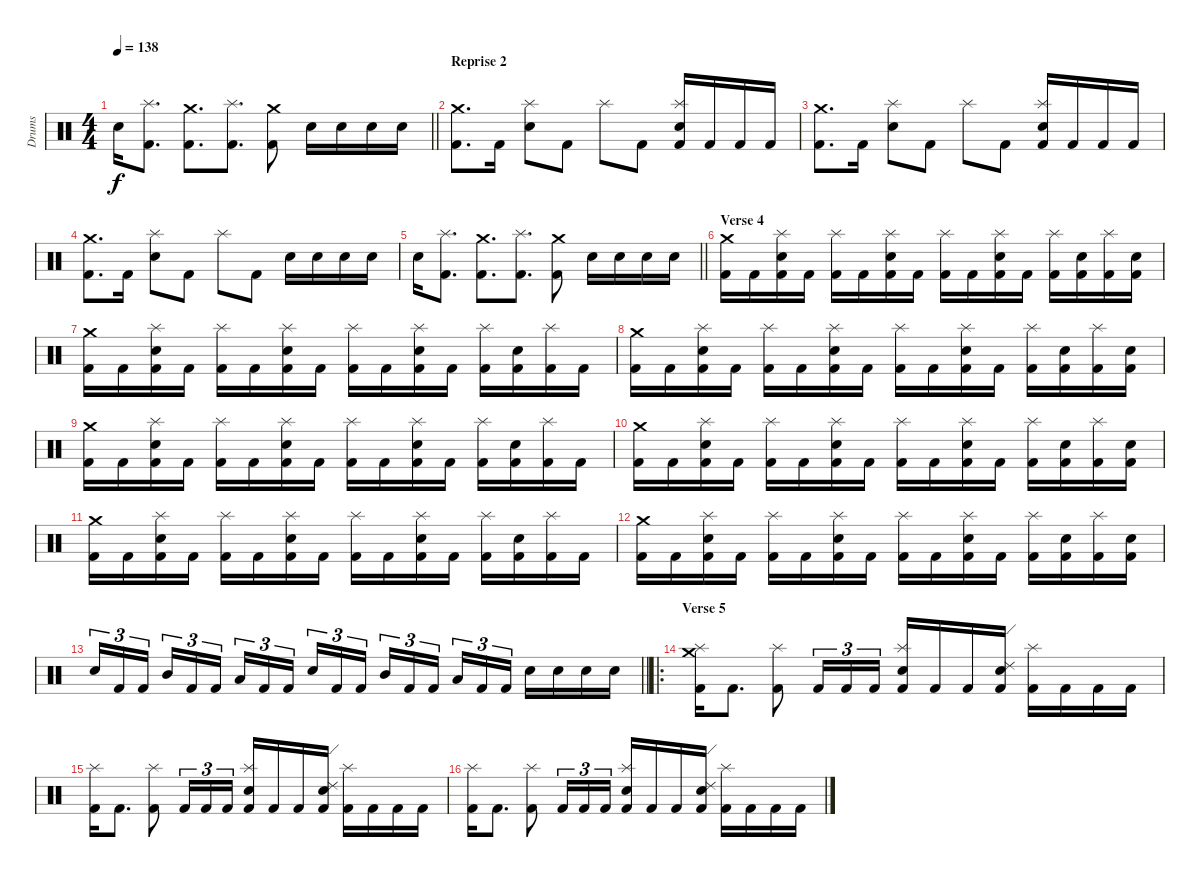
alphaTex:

\track ("Drums" "Drums") {instrument percussion}
\staff {score}
\articulation defaults
\ts (4 4)
\tempo 138
\clef neutral
\barLineRight lightlight
\ks c "Snare (hit) 2".16{dy f}
("Splash (hit)" "Kick (hit) 2").8{d} ("Crash medium (hit)" "Kick (hit) 2").8{d} ("Splash (hit)" "Kick (hit) 2").8{d} ("Crash medium (hit)" "Kick (hit) 2").8 "Snare (hit) 2".16 "Snare (hit) 2".16 "Snare (hit) 2".16 "Snare (hit) 2".16 |
\section ("" "Reprise 2")
("Crash medium (hit)" "Kick (hit) 2").8{d} "Kick (hit) 2".16 ("Splash (hit)" "Snare (hit) 2").8 "Kick (hit) 2".8 "Splash (hit)".8 "Kick (hit) 2".8 ("Splash (hit)" "Snare (hit) 2" "Kick (hit) 2").16 "Kick (hit) 2".16 "Kick (hit) 2".16 "Kick (hit) 2".16 |
("Crash medium (hit)" "Kick (hit) 2").8{d} "Kick (hit) 2".16 ("Splash (hit)" "Snare (hit) 2").8 "Kick (hit) 2".8 "Splash (hit)".8 "Kick (hit) 2".8 ("Splash (hit)" "Snare (hit) 2" "Kick (hit) 2").16 "Kick (hit) 2".16 "Kick (hit) 2".16 "Kick (hit) 2".16 |
("Crash medium (hit)" "Kick (hit) 2").8{d} "Kick (hit) 2".16 ("Splash (hit)" "Snare (hit) 2").8 "Kick (hit) 2".8 "Splash (hit)".8 "Kick (hit) 2".8 "Snare (hit) 2".16 "Snare (hit) 2".16 "Snare (hit) 2".16 "Snare (hit) 2".16 |
\barLineRight lightlight "Snare (hit) 2".16
("Splash (hit)" "Kick (hit) 2").8{d} ("Crash medium (hit)" "Kick (hit) 2").8{d} ("Splash (hit)" "Kick (hit) 2").8{d} ("Crash medium (hit)" "Kick (hit) 2").8 "Snare (hit) 2".16 "Snare (hit) 2".16 "Snare (hit) 2".16 "Snare (hit) 2".16 |
\section ("" "Verse 4")
("Crash medium (hit)" "Kick (hit) 2").16 "Kick (hit) 2".16 ("Splash (hit)" "Snare (hit) 2" "Kick (hit) 2").16 "Kick (hit) 2".16 ("Splash (hit)" "Kick (hit) 2").16 "Kick (hit) 2".16 ("Splash (hit)" "Snare (hit) 2" "Kick (hit) 2").16 "Kick (hit) 2".16 ("Splash (hit)" "Kick (hit) 2").16 "Kick (hit) 2".16 ("Splash (hit)" "Snare (hit) 2" "Kick (hit) 2").16 "Kick (hit) 2".16 ("Splash (hit)" "Kick (hit) 2").16 ("Snare (hit) 2" "Kick (hit) 2").16 ("Splash (hit)" "Kick (hit) 2").16 ("Snare (hit) 2" "Kick (hit) 2").16 |
("Crash medium (hit)" "Kick (hit) 2").16 "Kick (hit) 2".16 ("Splash (hit)" "Snare (hit) 2" "Kick (hit) 2").16 "Kick (hit) 2".16 ("Splash (hit)" "Kick (hit) 2").16 "Kick (hit) 2".16 ("Splash (hit)" "Snare (hit) 2" "Kick (hit) 2").16 "Kick (hit) 2".16 ("Splash (hit)" "Kick (hit) 2").16 "Kick (hit) 2".16 ("Splash (hit)" "Snare (hit) 2" "Kick (hit) 2").16 "Kick (hit) 2".16 ("Splash (hit)" "Kick (hit) 2").16 ("Snare (hit) 2" "Kick (hit) 2").16 ("Splash (hit)" "Kick (hit) 2").16 "Kick (hit) 2".16 |
("Crash medium (hit)" "Kick (hit) 2").16 "Kick (hit) 2".16 ("Splash (hit)" "Snare (hit) 2" "Kick (hit) 2").16 "Kick (hit) 2".16 ("Splash (hit)" "Kick (hit) 2").16 "Kick (hit) 2".16 ("Splash (hit)" "Snare (hit) 2" "Kick (hit) 2").16 "Kick (hit) 2".16 ("Splash (hit)" "Kick (hit) 2").16 "Kick (hit) 2".16 ("Splash (hit)" "Snare (hit) 2" "Kick (hit) 2").16 "Kick (hit) 2".16 ("Splash (hit)" "Kick (hit) 2").16 ("Snare (hit) 2" "Kick (hit) 2").16 ("Splash (hit)" "Kick (hit) 2").16 ("Snare (hit) 2" "Kick (hit) 2").16 |
("Crash medium (hit)" "Kick (hit) 2").16 "Kick (hit) 2".16 ("Splash (hit)" "Snare (hit) 2" "Kick (hit) 2").16 "Kick (hit) 2".16 ("Splash (hit)" "Kick (hit) 2").16 "Kick (hit) 2".16 ("Splash (hit)" "Snare (hit) 2" "Kick (hit) 2").16 "Kick (hit) 2".16 ("Splash (hit)" "Kick (hit) 2").16 "Kick (hit) 2".16 ("Splash (hit)" "Snare (hit) 2" "Kick (hit) 2").16 "Kick (hit) 2".16 ("Splash (hit)" "Kick (hit) 2").16 ("Snare (hit) 2" "Kick (hit) 2").16 ("Splash (hit)" "Kick (hit) 2").16 "Kick (hit) 2".16 |
("Crash medium (hit)" "Kick (hit) 2").16 "Kick (hit) 2".16 ("Splash (hit)" "Snare (hit) 2" "Kick (hit) 2").16 "Kick (hit) 2".16 ("Splash (hit)" "Kick (hit) 2").16 "Kick (hit) 2".16 ("Splash (hit)" "Snare (hit) 2" "Kick (hit) 2").16 "Kick (hit) 2".16 ("Splash (hit)" "Kick (hit) 2").16 "Kick (hit) 2".16 ("Splash (hit)" "Snare (hit) 2" "Kick (hit) 2").16 "Kick (hit) 2".16 ("Splash (hit)" "Kick (hit) 2").16 ("Snare (hit) 2" "Kick (hit) 2").16 ("Splash (hit)" "Kick (hit) 2").16 ("Snare (hit) 2" "Kick (hit) 2").16 |
("Crash medium (hit)" "Kick (hit) 2").16 "Kick (hit) 2".16 ("Splash (hit)" "Snare (hit) 2" "Kick (hit) 2").16 "Kick (hit) 2".16 ("Splash (hit)" "Kick (hit) 2").16 "Kick (hit) 2".16 ("Splash (hit)" "Snare (hit) 2" "Kick (hit) 2").16 "Kick (hit) 2".16 ("Splash (hit)" "Kick (hit) 2").16 "Kick (hit) 2".16 ("Splash (hit)" "Snare (hit) 2" "Kick (hit) 2").16 "Kick (hit) 2".16 ("Splash (hit)" "Kick (hit) 2").16 ("Snare (hit) 2" "Kick (hit) 2").16 ("Splash (hit)" "Kick (hit) 2").16 "Kick (hit) 2".16 |
("Crash medium (hit)" "Kick (hit) 2").16 "Kick (hit) 2".16 ("Splash (hit)" "Snare (hit) 2" "Kick (hit) 2").16 "Kick (hit) 2".16 ("Splash (hit)" "Kick (hit) 2").16 "Kick (hit) 2".16 ("Splash (hit)" "Snare (hit) 2" "Kick (hit) 2").16 "Kick (hit) 2".16 ("Splash (hit)" "Kick (hit) 2").16 "Kick (hit) 2".16 ("Splash (hit)" "Snare (hit) 2" "Kick (hit) 2").16 "Kick (hit) 2".16 ("Splash (hit)" "Kick (hit) 2").16 ("Snare (hit) 2" "Kick (hit) 2").16 ("Splash (hit)" "Kick (hit) 2").16 ("Snare (hit) 2" "Kick (hit) 2").16 |
\barLineRight lightlight "Snare (hit) 2".16{tu (3 2)} "Kick (hit) 2".16{tu (3 2)} "Kick (hit) 2".16{tu (3 2) beam splitsecondary} "Mid Tom (hit)".16{tu (3 2)} "Kick (hit) 2".16{tu (3 2)} "Kick (hit) 2".16{tu (3 2)} "Low Tom (hit)".16{tu (3 2)} "Kick (hit) 2".16{tu (3 2)} "Kick (hit) 2".16{tu (3 2) beam splitsecondary} "Snare (hit) 2".16{tu (3 2)} "Kick (hit) 2".16{tu (3 2)} "Kick (hit) 2".16{tu (3 2)} "Mid Tom (hit)".16{tu (3 2)} "Kick (hit) 2".16{tu (3 2)} "Kick (hit) 2".16{tu (3 2) beam splitsecondary} "Low Tom (hit)".16{tu (3 2)} "Kick (hit) 2".16{tu (3 2)} "Kick (hit) 2".16{tu (3 2)} "Snare (hit) 2".16 "Snare (hit) 2".16 "Snare (hit) 2".16 "Snare (hit) 2".16
|
\ro
\section ("" "Verse 5")
("Crash medium (hit)" "Splash (hit)" "Kick (hit) 2").16 "Kick (hit) 2".8{d} ("Splash (hit)" "Kick (hit) 2").8 "Kick (hit) 2".16{tu (3 2)} "Kick (hit) 2".16{tu (3 2)} "Kick (hit) 2".16{tu (3 2)} ("Splash (hit)" "Snare (hit) 2" "Kick (hit) 2").16 "Kick (hit) 2".16 "Kick (hit) 2".16 ("Ride (edge) 2" "Snare (hit) 2" "Kick (hit) 2").16 ("Splash (hit)" "Kick (hit) 2").16 "Kick (hit) 2".16 "Kick (hit) 2".16 "Kick (hit) 2".16 |
("Splash (hit)" "Kick (hit) 2").16 "Kick (hit) 2".8{d} ("Splash (hit)" "Kick (hit) 2").8 "Kick (hit) 2".16{tu (3 2)} "Kick (hit) 2".16{tu (3 2)} "Kick (hit) 2".16{tu (3 2)} ("Splash (hit)" "Snare (hit) 2" "Kick (hit) 2").16 "Kick (hit) 2".16 "Kick (hit) 2".16 ("Ride (edge) 2" "Snare (hit) 2" "Kick (hit) 2").16 ("Splash (hit)" "Kick (hit) 2").16 "Kick (hit) 2".16 "Kick (hit) 2".16 "Kick (hit) 2".16 |
("Splash (hit)" "Kick (hit) 2").16 "Kick (hit) 2".8{d} ("Splash (hit)" "Kick (hit) 2").8 "Kick (hit) 2".16{tu (3 2)} "Kick (hit) 2".16{tu (3 2)} "Kick (hit) 2".16{tu (3 2)} ("Splash (hit)" "Snare (hit) 2" "Kick (hit) 2").16 "Kick (hit) 2".16 "Kick (hit) 2".16 ("Ride (edge) 2" "Snare (hit) 2" "Kick (hit) 2").16 ("Splash (hit)" "Kick (hit) 2").16 "Kick (hit) 2".16 "Kick (hit) 2".16 "Kick (hit) 2".16
